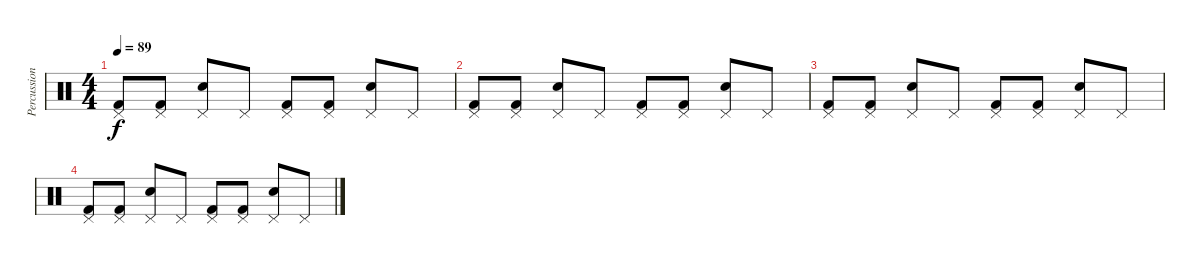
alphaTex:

\track ("Percussions" "Percussion") {instrument percussion}
\staff {score}
\articulation defaults
\ts (4 4)
\tempo 89
\clef neutral
\ks c
("Kick (hit) 2" "Pedal Hi-Hat (hit)").8{dy f} ("Kick (hit) 2" "Pedal Hi-Hat (hit)").8 ("Snare (hit) 2" "Pedal Hi-Hat (hit)").8 "Pedal Hi-Hat (hit)".8 ("Kick (hit) 2" "Pedal Hi-Hat (hit)").8 ("Kick (hit) 2" "Pedal Hi-Hat (hit)").8 ("Snare (hit) 2" "Pedal Hi-Hat (hit)").8 "Pedal Hi-Hat (hit)".8 |
("Kick (hit) 2" "Pedal Hi-Hat (hit)").8 ("Kick (hit) 2" "Pedal Hi-Hat (hit)").8 ("Snare (hit) 2" "Pedal Hi-Hat (hit)").8 "Pedal Hi-Hat (hit)".8 ("Kick (hit) 2" "Pedal Hi-Hat (hit)").8 ("Kick (hit) 2" "Pedal Hi-Hat (hit)").8 ("Snare (hit) 2" "Pedal Hi-Hat (hit)").8 "Pedal Hi-Hat (hit)".8 |
("Kick (hit) 2" "Pedal Hi-Hat (hit)").8 ("Kick (hit) 2" "Pedal Hi-Hat (hit)").8 ("Snare (hit) 2" "Pedal Hi-Hat (hit)").8 "Pedal Hi-Hat (hit)".8 ("Kick (hit) 2" "Pedal Hi-Hat (hit)").8 ("Kick (hit) 2" "Pedal Hi-Hat (hit)").8 ("Snare (hit) 2" "Pedal Hi-Hat (hit)").8 "Pedal Hi-Hat (hit)".8 |
("Kick (hit) 2" "Pedal Hi-Hat (hit)").8 ("Kick (hit) 2" "Pedal Hi-Hat (hit)").8 ("Snare (hit) 2" "Pedal Hi-Hat (hit)").8 "Pedal Hi-Hat (hit)".8 ("Kick (hit) 2" "Pedal Hi-Hat (hit)").8 ("Kick (hit) 2" "Pedal Hi-Hat (hit)").8 ("Snare (hit) 2" "Pedal Hi-Hat (hit)").8 "Pedal Hi-Hat (hit)".8
